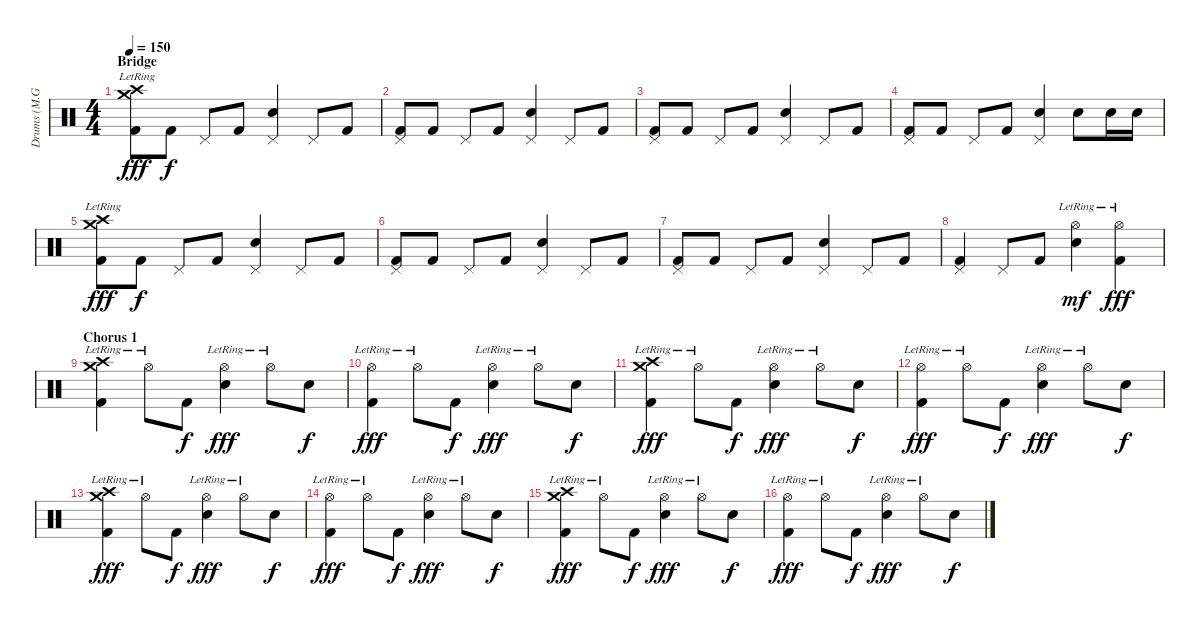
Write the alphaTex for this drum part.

\track ("Drums (M.Großkopf)" "Drums (M.G") {instrument percussion}
\staff {score}
\articulation defaults
\ts (4 4)
\section ("" "Bridge")
\tempo 150
\clef neutral
\ks c
("Crash high (hit)"{lr} "Crash medium (hit)"{lr} "Kick (hit) 2").8{dy fff} "Kick (hit) 2".8{dy f} "Pedal Hi-Hat (hit)".8 "Kick (hit) 2".8 ("Pedal Hi-Hat (hit)" "Electric Snare (hit)").4 "Pedal Hi-Hat (hit)".8 "Kick (hit) 2".8 |
("Pedal Hi-Hat (hit)" "Kick (hit) 2").8 "Kick (hit) 2".8 "Pedal Hi-Hat (hit)".8 "Kick (hit) 2".8 ("Pedal Hi-Hat (hit)" "Electric Snare (hit)").4 "Pedal Hi-Hat (hit)".8 "Kick (hit) 2".8 |
("Pedal Hi-Hat (hit)" "Kick (hit) 2").8 "Kick (hit) 2".8 "Pedal Hi-Hat (hit)".8 "Kick (hit) 2".8 ("Pedal Hi-Hat (hit)" "Electric Snare (hit)").4 "Pedal Hi-Hat (hit)".8 "Kick (hit) 2".8 |
("Pedal Hi-Hat (hit)" "Kick (hit) 2").8 "Kick (hit) 2".8 "Pedal Hi-Hat (hit)".8 "Kick (hit) 2".8 ("Pedal Hi-Hat (hit)" "Electric Snare (hit)").4 "Electric Snare (hit)".8 "Electric Snare (hit)".16 "Electric Snare (hit)".16 |
("Crash high (hit)"{lr} "Crash medium (hit)"{lr} "Kick (hit) 2").8{dy fff} "Kick (hit) 2".8{dy f} "Pedal Hi-Hat (hit)".8 "Kick (hit) 2".8 ("Pedal Hi-Hat (hit)" "Electric Snare (hit)").4 "Pedal Hi-Hat (hit)".8 "Kick (hit) 2".8 |
("Pedal Hi-Hat (hit)" "Kick (hit) 2").8 "Kick (hit) 2".8 "Pedal Hi-Hat (hit)".8 "Kick (hit) 2".8 ("Pedal Hi-Hat (hit)" "Electric Snare (hit)").4 "Pedal Hi-Hat (hit)".8 "Kick (hit) 2".8 |
("Pedal Hi-Hat (hit)" "Kick (hit) 2").8 "Kick (hit) 2".8 "Pedal Hi-Hat (hit)".8 "Kick (hit) 2".8 ("Pedal Hi-Hat (hit)" "Electric Snare (hit)").4 "Pedal Hi-Hat (hit)".8 "Kick (hit) 2".8 |
("Pedal Hi-Hat (hit)" "Kick (hit) 2").4 "Pedal Hi-Hat (hit)".8 "Kick (hit) 2".8 ("Hi-Hat (open)"{lr} "Electric Snare (hit)").4{dy mf} ("Hi-Hat (open)"{lr} "Kick (hit) 2").4{dy fff} |
\section ("" "Chorus 1")
("Crash high (hit)"{lr} "Crash medium (hit)"{lr} "Kick (hit) 2").4 "Hi-Hat (open)"{lr}.8 "Kick (hit) 2".8{dy f} ("Hi-Hat (open)"{lr} "Electric Snare (hit)").4{dy fff} "Hi-Hat (open)"{lr}.8 "Electric Snare (hit)".8{dy f} |
("Hi-Hat (open)"{lr} "Kick (hit) 2").4{dy fff} "Hi-Hat (open)"{lr}.8 "Kick (hit) 2".8{dy f} ("Hi-Hat (open)"{lr} "Electric Snare (hit)").4{dy fff} "Hi-Hat (open)"{lr}.8 "Electric Snare (hit)".8{dy f} |
("Crash high (hit)"{lr} "Crash medium (hit)"{lr} "Kick (hit) 2").4{dy fff} "Hi-Hat (open)"{lr}.8 "Kick (hit) 2".8{dy f} ("Hi-Hat (open)"{lr} "Electric Snare (hit)").4{dy fff} "Hi-Hat (open)"{lr}.8 "Electric Snare (hit)".8{dy f} |
("Hi-Hat (open)"{lr} "Kick (hit) 2").4{dy fff} "Hi-Hat (open)"{lr}.8 "Kick (hit) 2".8{dy f} ("Hi-Hat (open)"{lr} "Electric Snare (hit)").4{dy fff} "Hi-Hat (open)"{lr}.8 "Electric Snare (hit)".8{dy f} |
("Crash high (hit)"{lr} "Crash medium (hit)"{lr} "Kick (hit) 2").4{dy fff} "Hi-Hat (open)"{lr}.8 "Kick (hit) 2".8{dy f} ("Hi-Hat (open)"{lr} "Electric Snare (hit)").4{dy fff} "Hi-Hat (open)"{lr}.8 "Electric Snare (hit)".8{dy f} |
("Hi-Hat (open)"{lr} "Kick (hit) 2").4{dy fff} "Hi-Hat (open)"{lr}.8 "Kick (hit) 2".8{dy f} ("Hi-Hat (open)"{lr} "Electric Snare (hit)").4{dy fff} "Hi-Hat (open)"{lr}.8 "Electric Snare (hit)".8{dy f} |
("Crash high (hit)"{lr} "Crash medium (hit)"{lr} "Kick (hit) 2").4{dy fff} "Hi-Hat (open)"{lr}.8 "Kick (hit) 2".8{dy f} ("Hi-Hat (open)"{lr} "Electric Snare (hit)").4{dy fff} "Hi-Hat (open)"{lr}.8 "Electric Snare (hit)".8{dy f} |
("Hi-Hat (open)"{lr} "Kick (hit) 2").4{dy fff} "Hi-Hat (open)"{lr}.8 "Kick (hit) 2".8{dy f} ("Hi-Hat (open)"{lr} "Electric Snare (hit)").4{dy fff} "Hi-Hat (open)"{lr}.8 "Electric Snare (hit)".8{dy f}
